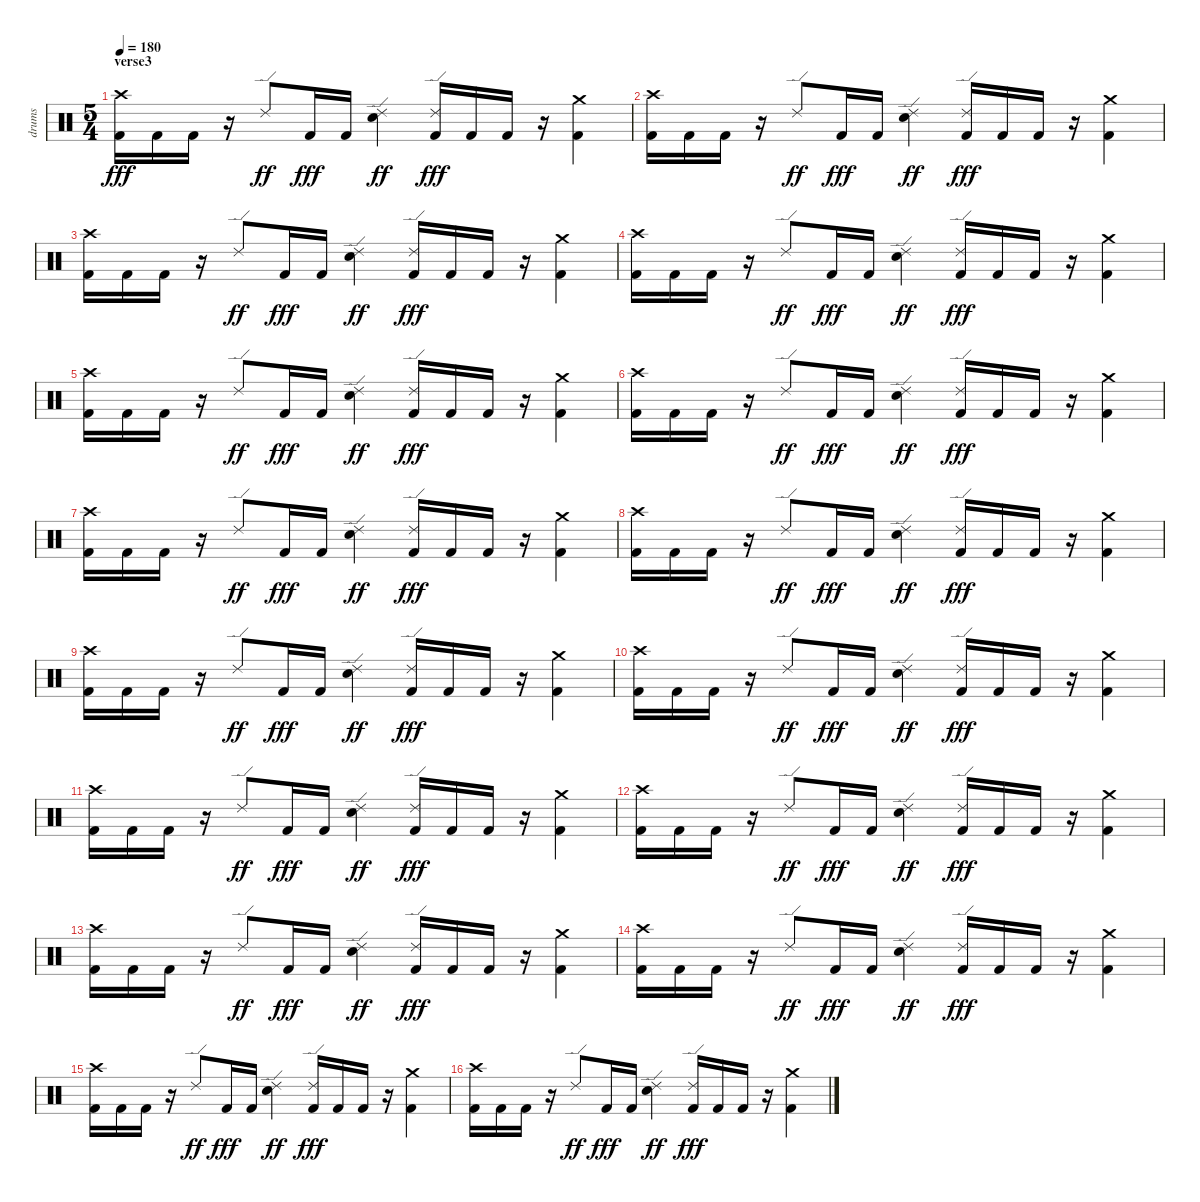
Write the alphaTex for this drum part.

\track ("drums" "drums") {instrument percussion}
\staff {score}
\articulation defaults
\ts (5 4)
\section ("" "verse3")
\tempo 180
\clef neutral
\ks c
("Crash high (hit)" "Kick (hit) 2").16{dy fff} "Kick (hit) 2".16 "Kick (hit) 2".16 r.16 "Ride (edge) 2".8{dy ff} "Kick (hit) 2".16{dy fff} "Kick (hit) 2".16 ("Ride (edge) 2" "Snare (hit) 2").4{dy ff} ("Ride (edge) 2" "Kick (hit) 2").16{dy fff} "Kick (hit) 2".16 "Kick (hit) 2".16 r.16 ("Crash medium (hit)" "Kick (hit) 2").4 |
("Crash high (hit)" "Kick (hit) 2").16 "Kick (hit) 2".16 "Kick (hit) 2".16 r.16 "Ride (edge) 2".8{dy ff} "Kick (hit) 2".16{dy fff} "Kick (hit) 2".16 ("Ride (edge) 2" "Snare (hit) 2").4{dy ff} ("Ride (edge) 2" "Kick (hit) 2").16{dy fff} "Kick (hit) 2".16 "Kick (hit) 2".16 r.16 ("Crash medium (hit)" "Kick (hit) 2").4 |
("Crash high (hit)" "Kick (hit) 2").16 "Kick (hit) 2".16 "Kick (hit) 2".16 r.16 "Ride (edge) 2".8{dy ff} "Kick (hit) 2".16{dy fff} "Kick (hit) 2".16 ("Ride (edge) 2" "Snare (hit) 2").4{dy ff} ("Ride (edge) 2" "Kick (hit) 2").16{dy fff} "Kick (hit) 2".16 "Kick (hit) 2".16 r.16 ("Crash medium (hit)" "Kick (hit) 2").4 |
("Crash high (hit)" "Kick (hit) 2").16 "Kick (hit) 2".16 "Kick (hit) 2".16 r.16 "Ride (edge) 2".8{dy ff} "Kick (hit) 2".16{dy fff} "Kick (hit) 2".16 ("Ride (edge) 2" "Snare (hit) 2").4{dy ff} ("Ride (edge) 2" "Kick (hit) 2").16{dy fff} "Kick (hit) 2".16 "Kick (hit) 2".16 r.16 ("Crash medium (hit)" "Kick (hit) 2").4 |
("Crash high (hit)" "Kick (hit) 2").16 "Kick (hit) 2".16 "Kick (hit) 2".16 r.16 "Ride (edge) 2".8{dy ff} "Kick (hit) 2".16{dy fff} "Kick (hit) 2".16 ("Ride (edge) 2" "Snare (hit) 2").4{dy ff} ("Ride (edge) 2" "Kick (hit) 2").16{dy fff} "Kick (hit) 2".16 "Kick (hit) 2".16 r.16 ("Crash medium (hit)" "Kick (hit) 2").4 |
("Crash high (hit)" "Kick (hit) 2").16 "Kick (hit) 2".16 "Kick (hit) 2".16 r.16 "Ride (edge) 2".8{dy ff} "Kick (hit) 2".16{dy fff} "Kick (hit) 2".16 ("Ride (edge) 2" "Snare (hit) 2").4{dy ff} ("Ride (edge) 2" "Kick (hit) 2").16{dy fff} "Kick (hit) 2".16 "Kick (hit) 2".16 r.16 ("Crash medium (hit)" "Kick (hit) 2").4 |
("Crash high (hit)" "Kick (hit) 2").16 "Kick (hit) 2".16 "Kick (hit) 2".16 r.16 "Ride (edge) 2".8{dy ff} "Kick (hit) 2".16{dy fff} "Kick (hit) 2".16 ("Ride (edge) 2" "Snare (hit) 2").4{dy ff} ("Ride (edge) 2" "Kick (hit) 2").16{dy fff} "Kick (hit) 2".16 "Kick (hit) 2".16 r.16 ("Crash medium (hit)" "Kick (hit) 2").4 |
("Crash high (hit)" "Kick (hit) 2").16 "Kick (hit) 2".16 "Kick (hit) 2".16 r.16 "Ride (edge) 2".8{dy ff} "Kick (hit) 2".16{dy fff} "Kick (hit) 2".16 ("Ride (edge) 2" "Snare (hit) 2").4{dy ff} ("Ride (edge) 2" "Kick (hit) 2").16{dy fff} "Kick (hit) 2".16 "Kick (hit) 2".16 r.16 ("Crash medium (hit)" "Kick (hit) 2").4 |
("Crash high (hit)" "Kick (hit) 2").16 "Kick (hit) 2".16 "Kick (hit) 2".16 r.16 "Ride (edge) 2".8{dy ff} "Kick (hit) 2".16{dy fff} "Kick (hit) 2".16 ("Ride (edge) 2" "Snare (hit) 2").4{dy ff} ("Ride (edge) 2" "Kick (hit) 2").16{dy fff} "Kick (hit) 2".16 "Kick (hit) 2".16 r.16 ("Crash medium (hit)" "Kick (hit) 2").4 |
("Crash high (hit)" "Kick (hit) 2").16 "Kick (hit) 2".16 "Kick (hit) 2".16 r.16 "Ride (edge) 2".8{dy ff} "Kick (hit) 2".16{dy fff} "Kick (hit) 2".16 ("Ride (edge) 2" "Snare (hit) 2").4{dy ff} ("Ride (edge) 2" "Kick (hit) 2").16{dy fff} "Kick (hit) 2".16 "Kick (hit) 2".16 r.16 ("Crash medium (hit)" "Kick (hit) 2").4 |
("Crash high (hit)" "Kick (hit) 2").16 "Kick (hit) 2".16 "Kick (hit) 2".16 r.16 "Ride (edge) 2".8{dy ff} "Kick (hit) 2".16{dy fff} "Kick (hit) 2".16 ("Ride (edge) 2" "Snare (hit) 2").4{dy ff} ("Ride (edge) 2" "Kick (hit) 2").16{dy fff} "Kick (hit) 2".16 "Kick (hit) 2".16 r.16 ("Crash medium (hit)" "Kick (hit) 2").4 |
("Crash high (hit)" "Kick (hit) 2").16 "Kick (hit) 2".16 "Kick (hit) 2".16 r.16 "Ride (edge) 2".8{dy ff} "Kick (hit) 2".16{dy fff} "Kick (hit) 2".16 ("Ride (edge) 2" "Snare (hit) 2").4{dy ff} ("Ride (edge) 2" "Kick (hit) 2").16{dy fff} "Kick (hit) 2".16 "Kick (hit) 2".16 r.16 ("Crash medium (hit)" "Kick (hit) 2").4 |
("Crash high (hit)" "Kick (hit) 2").16 "Kick (hit) 2".16 "Kick (hit) 2".16 r.16 "Ride (edge) 2".8{dy ff} "Kick (hit) 2".16{dy fff} "Kick (hit) 2".16 ("Ride (edge) 2" "Snare (hit) 2").4{dy ff} ("Ride (edge) 2" "Kick (hit) 2").16{dy fff} "Kick (hit) 2".16 "Kick (hit) 2".16 r.16 ("Crash medium (hit)" "Kick (hit) 2").4 |
("Crash high (hit)" "Kick (hit) 2").16 "Kick (hit) 2".16 "Kick (hit) 2".16 r.16 "Ride (edge) 2".8{dy ff} "Kick (hit) 2".16{dy fff} "Kick (hit) 2".16 ("Ride (edge) 2" "Snare (hit) 2").4{dy ff} ("Ride (edge) 2" "Kick (hit) 2").16{dy fff} "Kick (hit) 2".16 "Kick (hit) 2".16 r.16 ("Crash medium (hit)" "Kick (hit) 2").4 |
("Crash high (hit)" "Kick (hit) 2").16 "Kick (hit) 2".16 "Kick (hit) 2".16 r.16 "Ride (edge) 2".8{dy ff} "Kick (hit) 2".16{dy fff} "Kick (hit) 2".16 ("Ride (edge) 2" "Snare (hit) 2").4{dy ff} ("Ride (edge) 2" "Kick (hit) 2").16{dy fff} "Kick (hit) 2".16 "Kick (hit) 2".16 r.16 ("Crash medium (hit)" "Kick (hit) 2").4 |
("Crash high (hit)" "Kick (hit) 2").16 "Kick (hit) 2".16 "Kick (hit) 2".16 r.16 "Ride (edge) 2".8{dy ff} "Kick (hit) 2".16{dy fff} "Kick (hit) 2".16 ("Ride (edge) 2" "Snare (hit) 2").4{dy ff} ("Ride (edge) 2" "Kick (hit) 2").16{dy fff} "Kick (hit) 2".16 "Kick (hit) 2".16 r.16 ("Crash medium (hit)" "Kick (hit) 2").4
